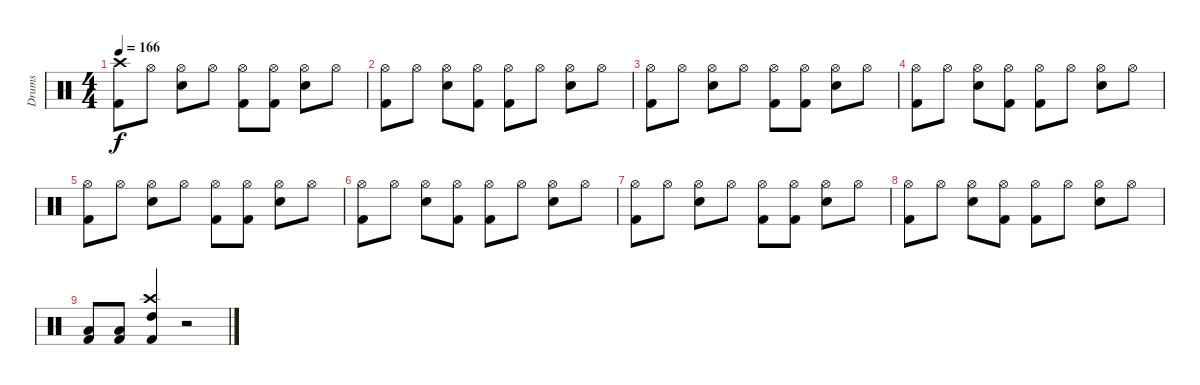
\track ("Drums" "Drums") {instrument percussion}
\staff {score}
\articulation defaults
\ts (4 4)
\tempo 166
\clef neutral
\ks c
("Kick (hit) 2" "Crash high (hit)").8{dy f} "Hi-Hat (open)".8 ("Snare (hit) 2" "Hi-Hat (open)").8 "Hi-Hat (open)".8 ("Kick (hit) 2" "Hi-Hat (open)").8 ("Kick (hit) 2" "Hi-Hat (open)").8 ("Snare (hit) 2" "Hi-Hat (open)").8 "Hi-Hat (open)".8 |
("Kick (hit) 2" "Hi-Hat (open)").8 "Hi-Hat (open)".8 ("Snare (hit) 2" "Hi-Hat (open)").8 ("Kick (hit) 2" "Hi-Hat (open)").8 ("Kick (hit) 2" "Hi-Hat (open)").8 "Hi-Hat (open)".8 ("Snare (hit) 2" "Hi-Hat (open)").8 "Hi-Hat (open)".8 |
("Kick (hit) 2" "Hi-Hat (open)").8 "Hi-Hat (open)".8 ("Snare (hit) 2" "Hi-Hat (open)").8 "Hi-Hat (open)".8 ("Kick (hit) 2" "Hi-Hat (open)").8 ("Kick (hit) 2" "Hi-Hat (open)").8 ("Snare (hit) 2" "Hi-Hat (open)").8 "Hi-Hat (open)".8 |
("Kick (hit) 2" "Hi-Hat (open)").8 "Hi-Hat (open)".8 ("Snare (hit) 2" "Hi-Hat (open)").8 ("Kick (hit) 2" "Hi-Hat (open)").8 ("Kick (hit) 2" "Hi-Hat (open)").8 "Hi-Hat (open)".8 ("Snare (hit) 2" "Hi-Hat (open)").8 "Hi-Hat (open)".8 |
("Kick (hit) 2" "Hi-Hat (open)").8 "Hi-Hat (open)".8 ("Snare (hit) 2" "Hi-Hat (open)").8 "Hi-Hat (open)".8 ("Kick (hit) 2" "Hi-Hat (open)").8 ("Kick (hit) 2" "Hi-Hat (open)").8 ("Snare (hit) 2" "Hi-Hat (open)").8 "Hi-Hat (open)".8 |
("Kick (hit) 2" "Hi-Hat (open)").8 "Hi-Hat (open)".8 ("Snare (hit) 2" "Hi-Hat (open)").8 ("Kick (hit) 2" "Hi-Hat (open)").8 ("Kick (hit) 2" "Hi-Hat (open)").8 "Hi-Hat (open)".8 ("Snare (hit) 2" "Hi-Hat (open)").8 "Hi-Hat (open)".8 |
("Kick (hit) 2" "Hi-Hat (open)").8 "Hi-Hat (open)".8 ("Snare (hit) 2" "Hi-Hat (open)").8 "Hi-Hat (open)".8 ("Kick (hit) 2" "Hi-Hat (open)").8 ("Kick (hit) 2" "Hi-Hat (open)").8 ("Snare (hit) 2" "Hi-Hat (open)").8 "Hi-Hat (open)".8 |
("Kick (hit) 2" "Hi-Hat (open)").8 "Hi-Hat (open)".8 ("Snare (hit) 2" "Hi-Hat (open)").8 ("Kick (hit) 2" "Hi-Hat (open)").8 ("Kick (hit) 2" "Hi-Hat (open)").8 "Hi-Hat (open)".8 ("Snare (hit) 2" "Hi-Hat (open)").8 "Hi-Hat (open)".8 |
("Kick (hit) 2" "Low Tom (hit)").8 ("Kick (hit) 2" "Low Tom (hit)").8 ("Kick (hit) 2" "High Tom (hit)" "Crash high (hit)").4 r.2
